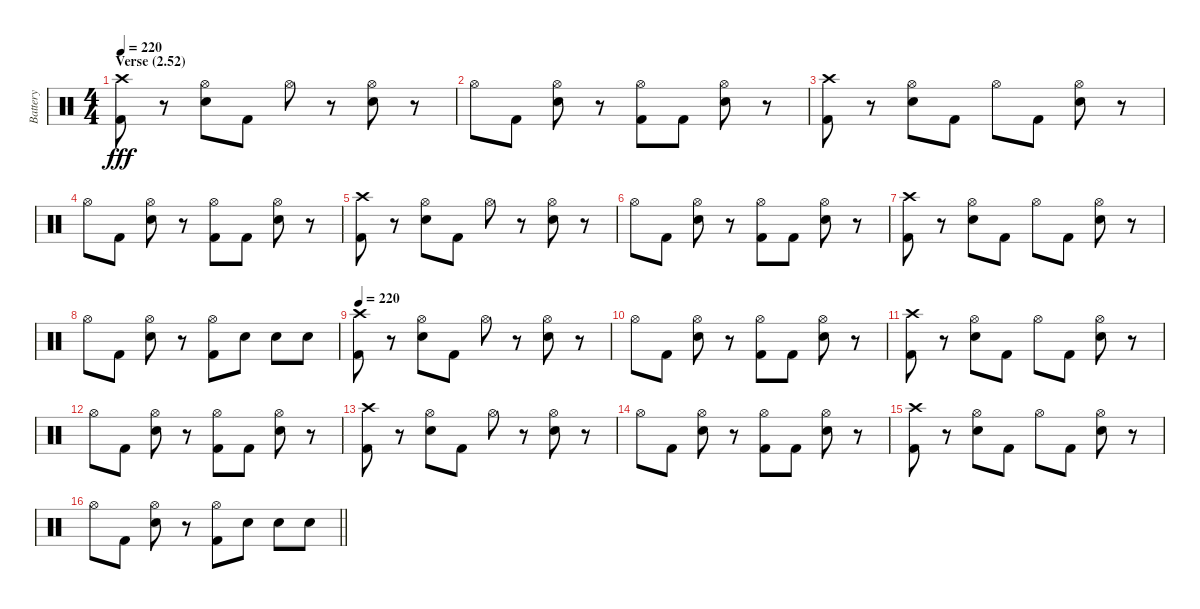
\track ("Battery" "Battery") {instrument percussion}
\staff {score}
\articulation defaults
\ts (4 4)
\section ("" "Verse (2.52)")
\tempo 220
\clef neutral
\ks c
("Crash high (hit)" "Kick (hit) 2").8{dy fff} r.8 ("Hi-Hat (open)" "Electric Snare (hit)").8 "Kick (hit) 2".8 "Hi-Hat (open)".8 r.8 ("Hi-Hat (open)" "Electric Snare (hit)").8 r.8 |
"Hi-Hat (open)".8 "Kick (hit) 2".8 ("Hi-Hat (open)" "Electric Snare (hit)").8 r.8 ("Hi-Hat (open)" "Kick (hit) 2").8 "Kick (hit) 2".8 ("Hi-Hat (open)" "Electric Snare (hit)").8 r.8 |
("Crash high (hit)" "Kick (hit) 2").8 r.8 ("Hi-Hat (open)" "Electric Snare (hit)").8 "Kick (hit) 2".8 "Hi-Hat (open)".8 "Kick (hit) 2".8 ("Hi-Hat (open)" "Electric Snare (hit)").8 r.8 |
"Hi-Hat (open)".8 "Kick (hit) 2".8 ("Hi-Hat (open)" "Electric Snare (hit)").8 r.8 ("Hi-Hat (open)" "Kick (hit) 2").8 "Kick (hit) 2".8 ("Hi-Hat (open)" "Electric Snare (hit)").8 r.8 |
("Crash high (hit)" "Kick (hit) 2").8 r.8 ("Hi-Hat (open)" "Electric Snare (hit)").8 "Kick (hit) 2".8 "Hi-Hat (open)".8 r.8 ("Hi-Hat (open)" "Electric Snare (hit)").8 r.8 |
"Hi-Hat (open)".8 "Kick (hit) 2".8 ("Hi-Hat (open)" "Electric Snare (hit)").8 r.8 ("Hi-Hat (open)" "Kick (hit) 2").8 "Kick (hit) 2".8 ("Hi-Hat (open)" "Electric Snare (hit)").8 r.8 |
("Crash high (hit)" "Kick (hit) 2").8 r.8 ("Hi-Hat (open)" "Electric Snare (hit)").8 "Kick (hit) 2".8 "Hi-Hat (open)".8 "Kick (hit) 2".8 ("Hi-Hat (open)" "Electric Snare (hit)").8 r.8 |
"Hi-Hat (open)".8 "Kick (hit) 2".8 ("Hi-Hat (open)" "Electric Snare (hit)").8 r.8 ("Hi-Hat (open)" "Kick (hit) 2").8 "Electric Snare (hit)".8 "Electric Snare (hit)".8 "Electric Snare (hit)".8 |
\tempo 220
("Crash high (hit)" "Kick (hit) 2").8 r.8 ("Hi-Hat (open)" "Electric Snare (hit)").8 "Kick (hit) 2".8 "Hi-Hat (open)".8 r.8 ("Hi-Hat (open)" "Electric Snare (hit)").8 r.8 |
"Hi-Hat (open)".8 "Kick (hit) 2".8 ("Hi-Hat (open)" "Electric Snare (hit)").8 r.8 ("Hi-Hat (open)" "Kick (hit) 2").8 "Kick (hit) 2".8 ("Hi-Hat (open)" "Electric Snare (hit)").8 r.8 |
("Crash high (hit)" "Kick (hit) 2").8 r.8 ("Hi-Hat (open)" "Electric Snare (hit)").8 "Kick (hit) 2".8 "Hi-Hat (open)".8 "Kick (hit) 2".8 ("Hi-Hat (open)" "Electric Snare (hit)").8 r.8 |
"Hi-Hat (open)".8 "Kick (hit) 2".8 ("Hi-Hat (open)" "Electric Snare (hit)").8 r.8 ("Hi-Hat (open)" "Kick (hit) 2").8 "Kick (hit) 2".8 ("Hi-Hat (open)" "Electric Snare (hit)").8 r.8 |
("Crash high (hit)" "Kick (hit) 2").8 r.8 ("Hi-Hat (open)" "Electric Snare (hit)").8 "Kick (hit) 2".8 "Hi-Hat (open)".8 r.8 ("Hi-Hat (open)" "Electric Snare (hit)").8 r.8 |
"Hi-Hat (open)".8 "Kick (hit) 2".8 ("Hi-Hat (open)" "Electric Snare (hit)").8 r.8 ("Hi-Hat (open)" "Kick (hit) 2").8 "Kick (hit) 2".8 ("Hi-Hat (open)" "Electric Snare (hit)").8 r.8 |
("Crash high (hit)" "Kick (hit) 2").8 r.8 ("Hi-Hat (open)" "Electric Snare (hit)").8 "Kick (hit) 2".8 "Hi-Hat (open)".8 "Kick (hit) 2".8 ("Hi-Hat (open)" "Electric Snare (hit)").8 r.8 |
\barLineRight lightlight "Hi-Hat (open)".8 "Kick (hit) 2".8
("Hi-Hat (open)" "Electric Snare (hit)").8 r.8 ("Hi-Hat (open)" "Kick (hit) 2").8 "Electric Snare (hit)".8 "Electric Snare (hit)".8 "Electric Snare (hit)".8
